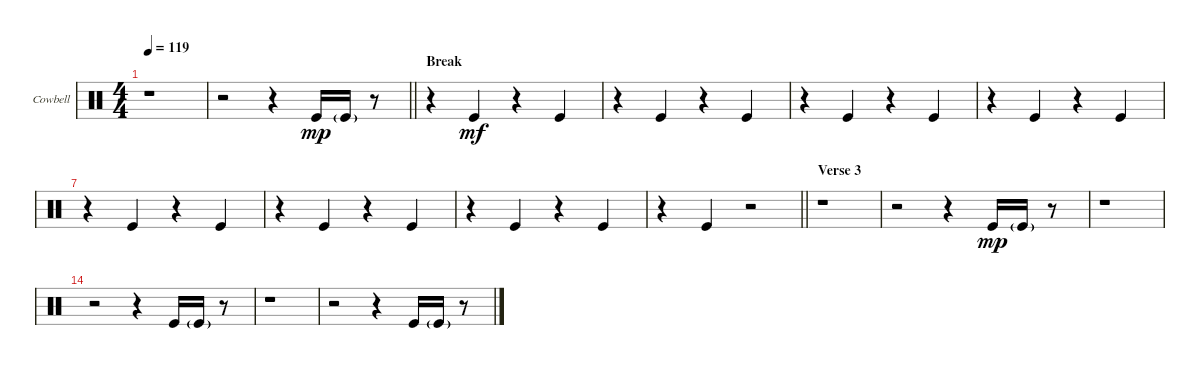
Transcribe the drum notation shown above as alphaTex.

\defaultSystemsLayout 4
\bracketExtendMode groupsimilarinstruments
\useSystemSignSeparator
\multiBarRest
\multiTrackTrackNamePolicy allsystems
\firstSystemTrackNameMode fullname
\firstSystemTrackNameOrientation horizontal
\otherSystemsTrackNameOrientation horizontal
\defaultBarNumberDisplay FirstOfSystem
\track ("Cowbell" "Cowbell") {multiBarRest instrument percussion}
\staff {score}
\articulation defaults
\ts (4 4)
\tempo 119
\clef neutral
\ks aminor
r.1{dy mp} |
\barLineRight lightlight
r.2 r.4 "Kick (hit)".16 "Kick (hit)"{g}.16 r.8 |
\section ("" "Break")
r.4 "Kick (hit)".4{dy mf} r.4 "Kick (hit)".4 |
r.4 "Kick (hit)".4 r.4 "Kick (hit)".4 |
r.4 "Kick (hit)".4 r.4 "Kick (hit)".4 |
r.4 "Kick (hit)".4 r.4 "Kick (hit)".4 |
r.4 "Kick (hit)".4 r.4 "Kick (hit)".4 |
r.4 "Kick (hit)".4 r.4 "Kick (hit)".4 |
r.4 "Kick (hit)".4 r.4 "Kick (hit)".4 |
\barLineRight lightlight
r.4 "Kick (hit)".4 r.2 |
\section ("" "Verse 3")
r.1 |
r.2 r.4 "Kick (hit)".16{dy mp} "Kick (hit)"{g}.16 r.8 |
r.1 |
r.2 r.4 "Kick (hit)".16 "Kick (hit)"{g}.16 r.8 |
r.1 |
r.2 r.4 "Kick (hit)".16 "Kick (hit)"{g}.16 r.8
